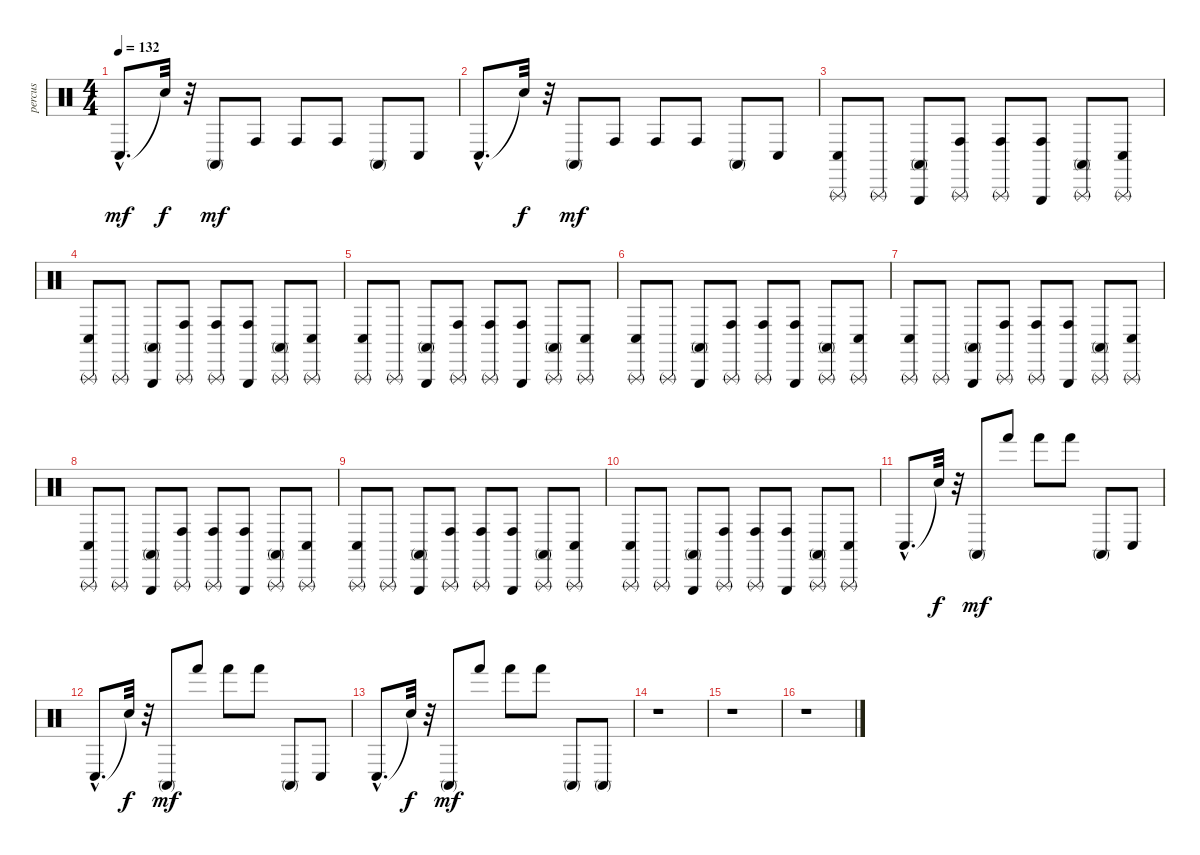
\track ("percus" "percus") {instrument percussion}
\staff {score}
\articulation defaults
\ts (4 4)
\tempo 132
\clef neutral
\ks c "Conga low (hit)"{hac}.8{d dy mf} "Snare (hit)"{t}.32{dy f}
r.32 "Conga high (mute)".8{dy mf} "Conga high (hit)".8 "Conga high (hit)".8 "Conga high (hit)".8 "Conga high (mute)".8 "Conga low (hit)".8 |
"Conga low (hit)"{hac}.8{d} "Snare (hit)"{t}.32{dy f} r.32 "Conga high (mute)".8{dy mf} "Conga high (hit)".8 "Conga high (hit)".8 "Conga high (hit)".8 "Conga high (mute)".8 "Conga low (hit)".8 |
("Conga low (hit)" "Triangle (rnute)").8 "Triangle (rnute)".8 ("Conga high (mute)" "Triangle (hit)").8 ("Conga high (hit)" "Triangle (rnute)").8 ("Conga high (hit)" "Triangle (rnute)").8 ("Conga high (hit)" "Triangle (hit)").8 ("Conga high (mute)" "Triangle (rnute)").8 ("Conga low (hit)" "Triangle (rnute)").8 |
("Conga low (hit)" "Triangle (rnute)").8 "Triangle (rnute)".8 ("Conga high (mute)" "Triangle (hit)").8 ("Conga high (hit)" "Triangle (rnute)").8 ("Conga high (hit)" "Triangle (rnute)").8 ("Conga high (hit)" "Triangle (hit)").8 ("Conga high (mute)" "Triangle (rnute)").8 ("Conga low (hit)" "Triangle (rnute)").8 |
("Conga low (hit)" "Triangle (rnute)").8 "Triangle (rnute)".8 ("Conga high (mute)" "Triangle (hit)").8 ("Conga high (hit)" "Triangle (rnute)").8 ("Conga high (hit)" "Triangle (rnute)").8 ("Conga high (hit)" "Triangle (hit)").8 ("Conga high (mute)" "Triangle (rnute)").8 ("Conga low (hit)" "Triangle (rnute)").8 |
("Conga low (hit)" "Triangle (rnute)").8 "Triangle (rnute)".8 ("Conga high (mute)" "Triangle (hit)").8 ("Conga high (hit)" "Triangle (rnute)").8 ("Conga high (hit)" "Triangle (rnute)").8 ("Conga high (hit)" "Triangle (hit)").8 ("Conga high (mute)" "Triangle (rnute)").8 ("Conga low (hit)" "Triangle (rnute)").8 |
("Conga low (hit)" "Triangle (rnute)").8 "Triangle (rnute)".8 ("Conga high (mute)" "Triangle (hit)").8 ("Conga high (hit)" "Triangle (rnute)").8 ("Conga high (hit)" "Triangle (rnute)").8 ("Conga high (hit)" "Triangle (hit)").8 ("Conga high (mute)" "Triangle (rnute)").8 ("Conga low (hit)" "Triangle (rnute)").8 |
("Conga low (hit)" "Triangle (rnute)").8 "Triangle (rnute)".8 ("Conga high (mute)" "Triangle (hit)").8 ("Conga high (hit)" "Triangle (rnute)").8 ("Conga high (hit)" "Triangle (rnute)").8 ("Conga high (hit)" "Triangle (hit)").8 ("Conga high (mute)" "Triangle (rnute)").8 ("Conga low (hit)" "Triangle (rnute)").8 |
("Conga low (hit)" "Triangle (rnute)").8 "Triangle (rnute)".8 ("Conga high (mute)" "Triangle (hit)").8 ("Conga high (hit)" "Triangle (rnute)").8 ("Conga high (hit)" "Triangle (rnute)").8 ("Conga high (hit)" "Triangle (hit)").8 ("Conga high (mute)" "Triangle (rnute)").8 ("Conga low (hit)" "Triangle (rnute)").8 |
("Conga low (hit)" "Triangle (rnute)").8 "Triangle (rnute)".8 ("Conga high (mute)" "Triangle (hit)").8 ("Conga high (hit)" "Triangle (rnute)").8 ("Conga high (hit)" "Triangle (rnute)").8 ("Conga high (hit)" "Triangle (hit)").8 ("Conga high (mute)" "Triangle (rnute)").8 ("Conga low (hit)" "Triangle (rnute)").8 |
"Conga low (hit)"{hac}.8{d} "Snare (hit)"{t}.32{dy f} r.32 "Conga high (mute)".8{dy mf} "Hand (hit)".8 "Hand (hit)".8 "Hand (hit)".8 "Conga high (mute)".8 "Conga low (hit)".8 |
"Conga low (hit)"{hac}.8{d} "Snare (hit)"{t}.32{dy f} r.32 "Conga high (mute)".8{dy mf} "Hand (hit)".8 "Hand (hit)".8 "Hand (hit)".8 "Conga high (mute)".8 "Conga low (hit)".8 |
"Conga low (hit)"{hac}.8{d} "Snare (hit)"{t}.32{dy f} r.32 "Conga high (mute)".8{dy mf} "Hand (hit)".8 "Hand (hit)".8 "Hand (hit)".8 "Conga high (mute)".8 "Conga high (mute)".8 |
r.1 |
r.1 |
r.1
